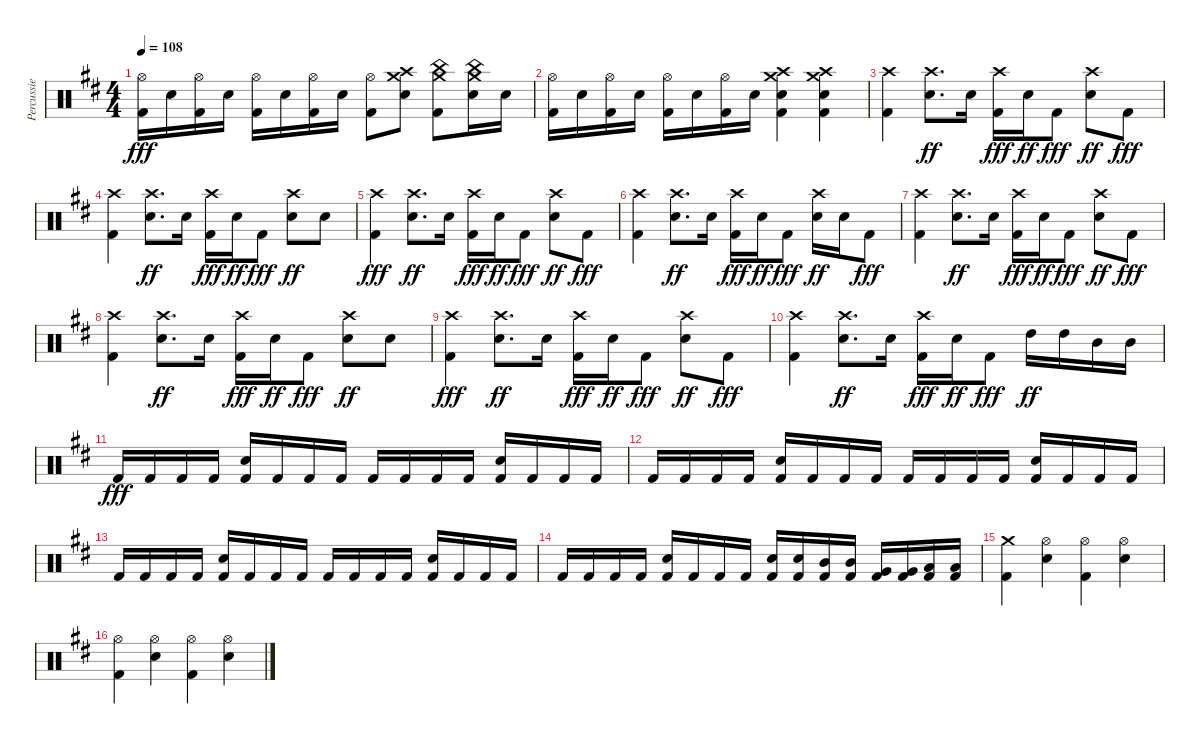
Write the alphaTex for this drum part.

\track ("Percussie" "Percussie") {instrument percussion}
\staff {score}
\articulation defaults
\ts (4 4)
\tempo 108
\clef neutral
\ks d
("Hi-Hat (open)" "Kick (hit) 2").16{dy fff} "Snare (hit) 2".16 ("Hi-Hat (open)" "Kick (hit) 2").16 "Snare (hit) 2".16 ("Hi-Hat (open)" "Kick (hit) 2").16 "Snare (hit) 2".16 ("Hi-Hat (open)" "Kick (hit) 2").16 "Snare (hit) 2".16 ("Hi-Hat (open)" "Kick (hit) 2").8 ("Crash high (hit)" "Crash medium (hit)" "Snare (hit) 2").8 ("China (hit)" "Crash medium (hit)" "Kick (hit) 2").8 ("China (hit)" "Crash medium (hit)" "Snare (hit) 2").16 "Snare (hit) 2".16 |
("Hi-Hat (open)" "Kick (hit) 2").16 "Snare (hit) 2".16 ("Hi-Hat (open)" "Kick (hit) 2").16 "Snare (hit) 2".16 ("Hi-Hat (open)" "Kick (hit) 2").16 "Snare (hit) 2".16 ("Hi-Hat (open)" "Kick (hit) 2").16 "Snare (hit) 2".16 ("Crash high (hit)" "Crash medium (hit)" "Snare (hit) 2" "Kick (hit) 2").4 ("Crash high (hit)" "Crash medium (hit)" "Snare (hit) 2" "Kick (hit) 2").4 |
("Crash high (hit)" "Kick (hit) 2").4 ("Crash high (hit)" "Snare (hit) 2").8{d dy ff} "Snare (hit) 2".16 ("Crash high (hit)" "Kick (hit) 2").16{dy fff} "Snare (hit) 2".16{dy ff} "Kick (hit) 2".8{dy fff} ("Crash high (hit)" "Snare (hit) 2").8{dy ff} "Kick (hit) 2".8{dy fff} |
("Crash high (hit)" "Kick (hit) 2").4 ("Crash high (hit)" "Snare (hit) 2").8{d dy ff} "Snare (hit) 2".16 ("Crash high (hit)" "Kick (hit) 2").16{dy fff} "Snare (hit) 2".16{dy ff} "Kick (hit) 2".8{dy fff} ("Crash high (hit)" "Snare (hit) 2").8{dy ff} "Snare (hit) 2".8 |
("Crash high (hit)" "Kick (hit) 2").4{dy fff} ("Crash high (hit)" "Snare (hit) 2").8{d dy ff} "Snare (hit) 2".16 ("Crash high (hit)" "Kick (hit) 2").16{dy fff} "Snare (hit) 2".16{dy ff} "Kick (hit) 2".8{dy fff} ("Crash high (hit)" "Snare (hit) 2").8{dy ff} "Kick (hit) 2".8{dy fff} |
("Crash high (hit)" "Kick (hit) 2").4 ("Crash high (hit)" "Snare (hit) 2").8{d dy ff} "Snare (hit) 2".16 ("Crash high (hit)" "Kick (hit) 2").16{dy fff} "Snare (hit) 2".16{dy ff} "Kick (hit) 2".8{dy fff} ("Crash high (hit)" "Snare (hit) 2").16{dy ff} "Snare (hit) 2".16 "Kick (hit) 2".8{dy fff} |
("Crash high (hit)" "Kick (hit) 2").4 ("Crash high (hit)" "Snare (hit) 2").8{d dy ff} "Snare (hit) 2".16 ("Crash high (hit)" "Kick (hit) 2").16{dy fff} "Snare (hit) 2".16{dy ff} "Kick (hit) 2".8{dy fff} ("Crash high (hit)" "Snare (hit) 2").8{dy ff} "Kick (hit) 2".8{dy fff} |
("Crash high (hit)" "Kick (hit) 2").4 ("Crash high (hit)" "Snare (hit) 2").8{d dy ff} "Snare (hit) 2".16 ("Crash high (hit)" "Kick (hit) 2").16{dy fff} "Snare (hit) 2".16{dy ff} "Kick (hit) 2".8{dy fff} ("Crash high (hit)" "Snare (hit) 2").8{dy ff} "Snare (hit) 2".8 |
("Crash high (hit)" "Kick (hit) 2").4{dy fff} ("Crash high (hit)" "Snare (hit) 2").8{d dy ff} "Snare (hit) 2".16 ("Crash high (hit)" "Kick (hit) 2").16{dy fff} "Snare (hit) 2".16{dy ff} "Kick (hit) 2".8{dy fff} ("Crash high (hit)" "Snare (hit) 2").8{dy ff} "Kick (hit) 2".8{dy fff} |
("Crash high (hit)" "Kick (hit) 2").4 ("Crash high (hit)" "Snare (hit) 2").8{d dy ff} "Snare (hit) 2".16 ("Crash high (hit)" "Kick (hit) 2").16{dy fff} "Snare (hit) 2".16{dy ff} "Kick (hit) 2".8{dy fff} "High Tom (hit)".16{dy ff} "High Tom (hit)".16 "Mid Tom (hit)".16 "Mid Tom (hit)".16 |
"Kick (hit) 2".16{dy fff} "Kick (hit) 2".16 "Kick (hit) 2".16 "Kick (hit) 2".16 ("Snare (hit) 2" "Kick (hit) 2").16 "Kick (hit) 2".16 "Kick (hit) 2".16 "Kick (hit) 2".16 "Kick (hit) 2".16 "Kick (hit) 2".16 "Kick (hit) 2".16 "Kick (hit) 2".16 ("Snare (hit) 2" "Kick (hit) 2").16 "Kick (hit) 2".16 "Kick (hit) 2".16 "Kick (hit) 2".16 |
"Kick (hit) 2".16 "Kick (hit) 2".16 "Kick (hit) 2".16 "Kick (hit) 2".16 ("Snare (hit) 2" "Kick (hit) 2").16 "Kick (hit) 2".16 "Kick (hit) 2".16 "Kick (hit) 2".16 "Kick (hit) 2".16 "Kick (hit) 2".16 "Kick (hit) 2".16 "Kick (hit) 2".16 ("Snare (hit) 2" "Kick (hit) 2").16 "Kick (hit) 2".16 "Kick (hit) 2".16 "Kick (hit) 2".16 |
"Kick (hit) 2".16 "Kick (hit) 2".16 "Kick (hit) 2".16 "Kick (hit) 2".16 ("Snare (hit) 2" "Kick (hit) 2").16 "Kick (hit) 2".16 "Kick (hit) 2".16 "Kick (hit) 2".16 "Kick (hit) 2".16 "Kick (hit) 2".16 "Kick (hit) 2".16 "Kick (hit) 2".16 ("Snare (hit) 2" "Kick (hit) 2").16 "Kick (hit) 2".16 "Kick (hit) 2".16 "Kick (hit) 2".16 |
"Kick (hit) 2".16 "Kick (hit) 2".16 "Kick (hit) 2".16 "Kick (hit) 2".16 ("Snare (hit) 2" "Kick (hit) 2").16 "Kick (hit) 2".16 "Kick (hit) 2".16 "Kick (hit) 2".16 ("Snare (hit) 2" "Kick (hit) 2").16 ("Snare (hit) 2" "Kick (hit) 2").16 ("Mid Tom (hit)" "Kick (hit) 2").16 ("Mid Tom (hit)" "Kick (hit) 2").16 ("Very Low Tom (hit)" "Kick (hit) 2").16 ("Very Low Tom (hit)" "Kick (hit) 2").16 ("Low Floor Tom (hit)" "Kick (hit) 2").16 ("Low Floor Tom (hit)" "Kick (hit) 2").16 |
("Crash medium (hit)" "Kick (hit) 2").4 ("Hi-Hat (open)" "Snare (hit) 2").4 ("Hi-Hat (open)" "Kick (hit) 2").4 ("Hi-Hat (open)" "Snare (hit) 2").4 |
("Hi-Hat (open)" "Kick (hit) 2").4 ("Hi-Hat (open)" "Snare (hit) 2").4 ("Hi-Hat (open)" "Kick (hit) 2").4 ("Hi-Hat (open)" "Snare (hit) 2").4
